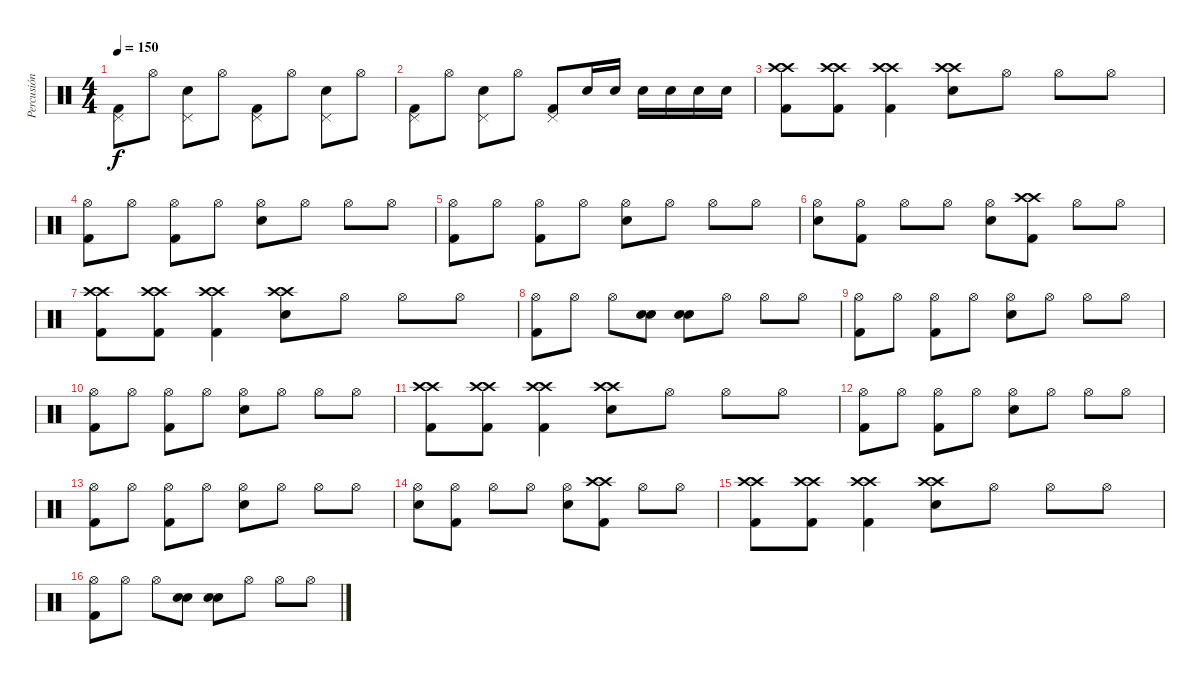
\track ("Percusión" "Percusión") {instrument percussion}
\staff {score}
\articulation defaults
\ts (4 4)
\tempo 150
\clef neutral
\ks c
("Pedal Hi-Hat (hit)" "Kick (hit) 2").8{dy f} "Hi-Hat (open)".8 ("Pedal Hi-Hat (hit)" "Electric Snare (hit)").8 "Hi-Hat (open)".8 ("Pedal Hi-Hat (hit)" "Kick (hit) 2").8 "Hi-Hat (open)".8 ("Pedal Hi-Hat (hit)" "Electric Snare (hit)").8 "Hi-Hat (open)".8 |
("Pedal Hi-Hat (hit)" "Kick (hit) 2").8 "Hi-Hat (open)".8 ("Pedal Hi-Hat (hit)" "Electric Snare (hit)").8 "Hi-Hat (open)".8 ("Pedal Hi-Hat (hit)" "Kick (hit) 2").8 "Electric Snare (hit)".16 "Electric Snare (hit)".16 "Electric Snare (hit)".16 "Electric Snare (hit)".16 "Electric Snare (hit)".16 "Electric Snare (hit)".16 |
("Crash high (hit)" "Crash high (hit)" "Kick (hit) 2").8 ("Crash high (hit)" "Crash high (hit)" "Kick (hit) 2").8 ("Crash high (hit)" "Crash high (hit)" "Kick (hit) 2").4 ("Crash high (hit)" "Crash high (hit)" "Electric Snare (hit)").8 "Hi-Hat (open)".8 "Hi-Hat (open)".8 "Hi-Hat (open)".8 |
("Hi-Hat (open)" "Kick (hit) 2").8 "Hi-Hat (open)".8 ("Hi-Hat (open)" "Kick (hit) 2").8 "Hi-Hat (open)".8 ("Hi-Hat (open)" "Electric Snare (hit)").8 "Hi-Hat (open)".8 "Hi-Hat (open)".8 "Hi-Hat (open)".8 |
("Hi-Hat (open)" "Kick (hit) 2").8 "Hi-Hat (open)".8 ("Hi-Hat (open)" "Kick (hit) 2").8 "Hi-Hat (open)".8 ("Hi-Hat (open)" "Electric Snare (hit)").8 "Hi-Hat (open)".8 "Hi-Hat (open)".8 "Hi-Hat (open)".8 |
("Hi-Hat (open)" "Electric Snare (hit)").8 ("Hi-Hat (open)" "Kick (hit) 2").8 "Hi-Hat (open)".8 "Hi-Hat (open)".8 ("Hi-Hat (open)" "Electric Snare (hit)").8 ("Crash high (hit)" "Crash high (hit)" "Kick (hit) 2").8 "Hi-Hat (open)".8 "Hi-Hat (open)".8 |
("Crash high (hit)" "Crash high (hit)" "Kick (hit) 2").8 ("Crash high (hit)" "Crash high (hit)" "Kick (hit) 2").8 ("Crash high (hit)" "Crash high (hit)" "Kick (hit) 2").4 ("Crash high (hit)" "Crash high (hit)" "Electric Snare (hit)").8 "Hi-Hat (open)".8 "Hi-Hat (open)".8 "Hi-Hat (open)".8 |
("Hi-Hat (open)" "Kick (hit) 2").8 "Hi-Hat (open)".8 "Hi-Hat (open)".8 ("Electric Snare (hit)" "Electric Snare (hit)").8 ("Electric Snare (hit)" "Electric Snare (hit)").8 "Hi-Hat (open)".8 "Hi-Hat (open)".8 "Hi-Hat (open)".8 |
("Hi-Hat (open)" "Kick (hit) 2").8 "Hi-Hat (open)".8 ("Hi-Hat (open)" "Kick (hit) 2").8 "Hi-Hat (open)".8 ("Hi-Hat (open)" "Electric Snare (hit)").8 "Hi-Hat (open)".8 "Hi-Hat (open)".8 "Hi-Hat (open)".8 |
("Hi-Hat (open)" "Kick (hit) 2").8 "Hi-Hat (open)".8 ("Hi-Hat (open)" "Kick (hit) 2").8 "Hi-Hat (open)".8 ("Hi-Hat (open)" "Electric Snare (hit)").8 "Hi-Hat (open)".8 "Hi-Hat (open)".8 "Hi-Hat (open)".8 |
("Crash high (hit)" "Crash high (hit)" "Kick (hit) 2").8 ("Crash high (hit)" "Crash high (hit)" "Kick (hit) 2").8 ("Crash high (hit)" "Crash high (hit)" "Kick (hit) 2").4 ("Crash high (hit)" "Crash high (hit)" "Electric Snare (hit)").8 "Hi-Hat (open)".8 "Hi-Hat (open)".8 "Hi-Hat (open)".8 |
("Hi-Hat (open)" "Kick (hit) 2").8 "Hi-Hat (open)".8 ("Hi-Hat (open)" "Kick (hit) 2").8 "Hi-Hat (open)".8 ("Hi-Hat (open)" "Electric Snare (hit)").8 "Hi-Hat (open)".8 "Hi-Hat (open)".8 "Hi-Hat (open)".8 |
("Hi-Hat (open)" "Kick (hit) 2").8 "Hi-Hat (open)".8 ("Hi-Hat (open)" "Kick (hit) 2").8 "Hi-Hat (open)".8 ("Hi-Hat (open)" "Electric Snare (hit)").8 "Hi-Hat (open)".8 "Hi-Hat (open)".8 "Hi-Hat (open)".8 |
("Hi-Hat (open)" "Electric Snare (hit)").8 ("Hi-Hat (open)" "Kick (hit) 2").8 "Hi-Hat (open)".8 "Hi-Hat (open)".8 ("Hi-Hat (open)" "Electric Snare (hit)").8 ("Crash high (hit)" "Crash high (hit)" "Kick (hit) 2").8 "Hi-Hat (open)".8 "Hi-Hat (open)".8 |
("Crash high (hit)" "Crash high (hit)" "Kick (hit) 2").8 ("Crash high (hit)" "Crash high (hit)" "Kick (hit) 2").8 ("Crash high (hit)" "Crash high (hit)" "Kick (hit) 2").4 ("Crash high (hit)" "Crash high (hit)" "Electric Snare (hit)").8 "Hi-Hat (open)".8 "Hi-Hat (open)".8 "Hi-Hat (open)".8 |
("Hi-Hat (open)" "Kick (hit) 2").8 "Hi-Hat (open)".8 "Hi-Hat (open)".8 ("Electric Snare (hit)" "Electric Snare (hit)").8 ("Electric Snare (hit)" "Electric Snare (hit)").8 "Hi-Hat (open)".8 "Hi-Hat (open)".8 "Hi-Hat (open)".8
